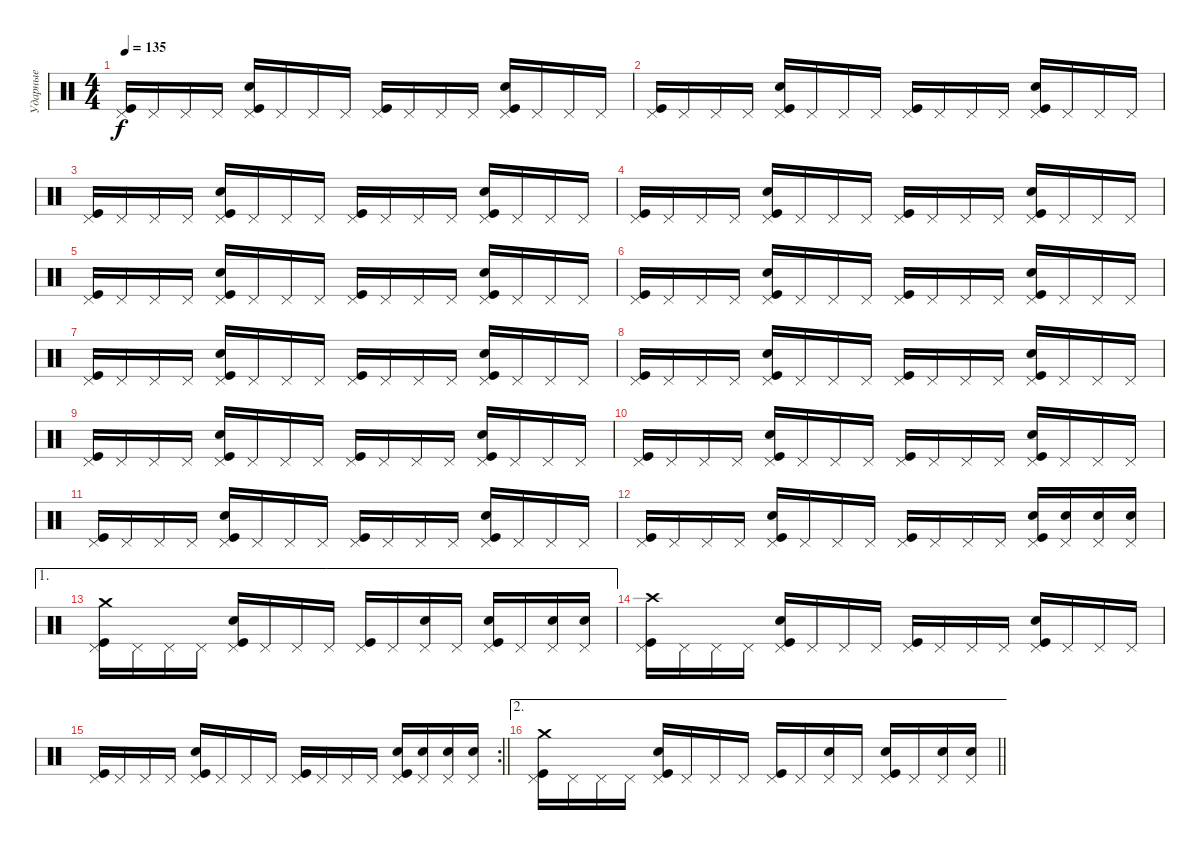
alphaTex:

\track ("Ударные" "Ударные") {instrument percussion}
\staff {score}
\articulation defaults
\ts (4 4)
\tempo 135
\clef neutral
\ks c
("Kick (hit)" "Pedal Hi-Hat (hit)").16{dy f} "Pedal Hi-Hat (hit)".16 "Pedal Hi-Hat (hit)".16 "Pedal Hi-Hat (hit)".16 ("Kick (hit)" "Pedal Hi-Hat (hit)" "Snare (hit) 2").16 "Pedal Hi-Hat (hit)".16 "Pedal Hi-Hat (hit)".16 "Pedal Hi-Hat (hit)".16 ("Kick (hit)" "Pedal Hi-Hat (hit)").16 "Pedal Hi-Hat (hit)".16 "Pedal Hi-Hat (hit)".16 "Pedal Hi-Hat (hit)".16 ("Kick (hit)" "Pedal Hi-Hat (hit)" "Snare (hit) 2").16 "Pedal Hi-Hat (hit)".16 "Pedal Hi-Hat (hit)".16 "Pedal Hi-Hat (hit)".16 |
("Kick (hit)" "Pedal Hi-Hat (hit)").16 "Pedal Hi-Hat (hit)".16 "Pedal Hi-Hat (hit)".16 "Pedal Hi-Hat (hit)".16 ("Kick (hit)" "Pedal Hi-Hat (hit)" "Snare (hit) 2").16 "Pedal Hi-Hat (hit)".16 "Pedal Hi-Hat (hit)".16 "Pedal Hi-Hat (hit)".16 ("Kick (hit)" "Pedal Hi-Hat (hit)").16 "Pedal Hi-Hat (hit)".16 "Pedal Hi-Hat (hit)".16 "Pedal Hi-Hat (hit)".16 ("Kick (hit)" "Pedal Hi-Hat (hit)" "Snare (hit) 2").16 "Pedal Hi-Hat (hit)".16 "Pedal Hi-Hat (hit)".16 "Pedal Hi-Hat (hit)".16 |
("Kick (hit)" "Pedal Hi-Hat (hit)").16 "Pedal Hi-Hat (hit)".16 "Pedal Hi-Hat (hit)".16 "Pedal Hi-Hat (hit)".16 ("Kick (hit)" "Pedal Hi-Hat (hit)" "Snare (hit) 2").16 "Pedal Hi-Hat (hit)".16 "Pedal Hi-Hat (hit)".16 "Pedal Hi-Hat (hit)".16 ("Kick (hit)" "Pedal Hi-Hat (hit)").16 "Pedal Hi-Hat (hit)".16 "Pedal Hi-Hat (hit)".16 "Pedal Hi-Hat (hit)".16 ("Kick (hit)" "Pedal Hi-Hat (hit)" "Snare (hit) 2").16 "Pedal Hi-Hat (hit)".16 "Pedal Hi-Hat (hit)".16 "Pedal Hi-Hat (hit)".16 |
("Kick (hit)" "Pedal Hi-Hat (hit)").16 "Pedal Hi-Hat (hit)".16 "Pedal Hi-Hat (hit)".16 "Pedal Hi-Hat (hit)".16 ("Kick (hit)" "Pedal Hi-Hat (hit)" "Snare (hit) 2").16 "Pedal Hi-Hat (hit)".16 "Pedal Hi-Hat (hit)".16 "Pedal Hi-Hat (hit)".16 ("Kick (hit)" "Pedal Hi-Hat (hit)").16 "Pedal Hi-Hat (hit)".16 "Pedal Hi-Hat (hit)".16 "Pedal Hi-Hat (hit)".16 ("Kick (hit)" "Pedal Hi-Hat (hit)" "Snare (hit) 2").16 "Pedal Hi-Hat (hit)".16 "Pedal Hi-Hat (hit)".16 "Pedal Hi-Hat (hit)".16 |
("Kick (hit)" "Pedal Hi-Hat (hit)").16 "Pedal Hi-Hat (hit)".16 "Pedal Hi-Hat (hit)".16 "Pedal Hi-Hat (hit)".16 ("Kick (hit)" "Pedal Hi-Hat (hit)" "Snare (hit) 2").16 "Pedal Hi-Hat (hit)".16 "Pedal Hi-Hat (hit)".16 "Pedal Hi-Hat (hit)".16 ("Kick (hit)" "Pedal Hi-Hat (hit)").16 "Pedal Hi-Hat (hit)".16 "Pedal Hi-Hat (hit)".16 "Pedal Hi-Hat (hit)".16 ("Kick (hit)" "Pedal Hi-Hat (hit)" "Snare (hit) 2").16 "Pedal Hi-Hat (hit)".16 "Pedal Hi-Hat (hit)".16 "Pedal Hi-Hat (hit)".16 |
("Kick (hit)" "Pedal Hi-Hat (hit)").16 "Pedal Hi-Hat (hit)".16 "Pedal Hi-Hat (hit)".16 "Pedal Hi-Hat (hit)".16 ("Kick (hit)" "Pedal Hi-Hat (hit)" "Snare (hit) 2").16 "Pedal Hi-Hat (hit)".16 "Pedal Hi-Hat (hit)".16 "Pedal Hi-Hat (hit)".16 ("Kick (hit)" "Pedal Hi-Hat (hit)").16 "Pedal Hi-Hat (hit)".16 "Pedal Hi-Hat (hit)".16 "Pedal Hi-Hat (hit)".16 ("Kick (hit)" "Pedal Hi-Hat (hit)" "Snare (hit) 2").16 "Pedal Hi-Hat (hit)".16 "Pedal Hi-Hat (hit)".16 "Pedal Hi-Hat (hit)".16 |
("Kick (hit)" "Pedal Hi-Hat (hit)").16 "Pedal Hi-Hat (hit)".16 "Pedal Hi-Hat (hit)".16 "Pedal Hi-Hat (hit)".16 ("Kick (hit)" "Pedal Hi-Hat (hit)" "Snare (hit) 2").16 "Pedal Hi-Hat (hit)".16 "Pedal Hi-Hat (hit)".16 "Pedal Hi-Hat (hit)".16 ("Kick (hit)" "Pedal Hi-Hat (hit)").16 "Pedal Hi-Hat (hit)".16 "Pedal Hi-Hat (hit)".16 "Pedal Hi-Hat (hit)".16 ("Kick (hit)" "Pedal Hi-Hat (hit)" "Snare (hit) 2").16 "Pedal Hi-Hat (hit)".16 "Pedal Hi-Hat (hit)".16 "Pedal Hi-Hat (hit)".16 |
("Kick (hit)" "Pedal Hi-Hat (hit)").16 "Pedal Hi-Hat (hit)".16 "Pedal Hi-Hat (hit)".16 "Pedal Hi-Hat (hit)".16 ("Kick (hit)" "Pedal Hi-Hat (hit)" "Snare (hit) 2").16 "Pedal Hi-Hat (hit)".16 "Pedal Hi-Hat (hit)".16 "Pedal Hi-Hat (hit)".16 ("Kick (hit)" "Pedal Hi-Hat (hit)").16 "Pedal Hi-Hat (hit)".16 "Pedal Hi-Hat (hit)".16 "Pedal Hi-Hat (hit)".16 ("Kick (hit)" "Pedal Hi-Hat (hit)" "Snare (hit) 2").16 "Pedal Hi-Hat (hit)".16 "Pedal Hi-Hat (hit)".16 "Pedal Hi-Hat (hit)".16 |
("Kick (hit)" "Pedal Hi-Hat (hit)").16 "Pedal Hi-Hat (hit)".16 "Pedal Hi-Hat (hit)".16 "Pedal Hi-Hat (hit)".16 ("Kick (hit)" "Pedal Hi-Hat (hit)" "Snare (hit) 2").16 "Pedal Hi-Hat (hit)".16 "Pedal Hi-Hat (hit)".16 "Pedal Hi-Hat (hit)".16 ("Kick (hit)" "Pedal Hi-Hat (hit)").16 "Pedal Hi-Hat (hit)".16 "Pedal Hi-Hat (hit)".16 "Pedal Hi-Hat (hit)".16 ("Kick (hit)" "Pedal Hi-Hat (hit)" "Snare (hit) 2").16 "Pedal Hi-Hat (hit)".16 "Pedal Hi-Hat (hit)".16 "Pedal Hi-Hat (hit)".16 |
("Kick (hit)" "Pedal Hi-Hat (hit)").16 "Pedal Hi-Hat (hit)".16 "Pedal Hi-Hat (hit)".16 "Pedal Hi-Hat (hit)".16 ("Kick (hit)" "Pedal Hi-Hat (hit)" "Snare (hit) 2").16 "Pedal Hi-Hat (hit)".16 "Pedal Hi-Hat (hit)".16 "Pedal Hi-Hat (hit)".16 ("Kick (hit)" "Pedal Hi-Hat (hit)").16 "Pedal Hi-Hat (hit)".16 "Pedal Hi-Hat (hit)".16 "Pedal Hi-Hat (hit)".16 ("Kick (hit)" "Pedal Hi-Hat (hit)" "Snare (hit) 2").16 "Pedal Hi-Hat (hit)".16 "Pedal Hi-Hat (hit)".16 "Pedal Hi-Hat (hit)".16 |
("Kick (hit)" "Pedal Hi-Hat (hit)").16 "Pedal Hi-Hat (hit)".16 "Pedal Hi-Hat (hit)".16 "Pedal Hi-Hat (hit)".16 ("Kick (hit)" "Pedal Hi-Hat (hit)" "Snare (hit) 2").16 "Pedal Hi-Hat (hit)".16 "Pedal Hi-Hat (hit)".16 "Pedal Hi-Hat (hit)".16 ("Kick (hit)" "Pedal Hi-Hat (hit)").16 "Pedal Hi-Hat (hit)".16 "Pedal Hi-Hat (hit)".16 "Pedal Hi-Hat (hit)".16 ("Kick (hit)" "Pedal Hi-Hat (hit)" "Snare (hit) 2").16 "Pedal Hi-Hat (hit)".16 "Pedal Hi-Hat (hit)".16 "Pedal Hi-Hat (hit)".16 |
("Kick (hit)" "Pedal Hi-Hat (hit)").16 "Pedal Hi-Hat (hit)".16 "Pedal Hi-Hat (hit)".16 "Pedal Hi-Hat (hit)".16 ("Kick (hit)" "Pedal Hi-Hat (hit)" "Snare (hit) 2").16 "Pedal Hi-Hat (hit)".16 "Pedal Hi-Hat (hit)".16 "Pedal Hi-Hat (hit)".16 ("Kick (hit)" "Pedal Hi-Hat (hit)").16 "Pedal Hi-Hat (hit)".16 "Pedal Hi-Hat (hit)".16 "Pedal Hi-Hat (hit)".16 ("Kick (hit)" "Pedal Hi-Hat (hit)" "Snare (hit) 2").16 ("Pedal Hi-Hat (hit)" "Snare (hit) 2").16 ("Pedal Hi-Hat (hit)" "Snare (hit) 2").16 ("Pedal Hi-Hat (hit)" "Snare (hit) 2").16 |
\ae 1
("Kick (hit)" "Pedal Hi-Hat (hit)" "Crash medium (hit)").16 "Pedal Hi-Hat (hit)".16 "Pedal Hi-Hat (hit)".16 "Pedal Hi-Hat (hit)".16 ("Kick (hit)" "Pedal Hi-Hat (hit)" "Snare (hit) 2").16 "Pedal Hi-Hat (hit)".16 "Pedal Hi-Hat (hit)".16 "Pedal Hi-Hat (hit)".16 ("Kick (hit)" "Pedal Hi-Hat (hit)").16 "Pedal Hi-Hat (hit)".16 ("Pedal Hi-Hat (hit)" "Snare (hit) 2").16 "Pedal Hi-Hat (hit)".16 ("Kick (hit)" "Pedal Hi-Hat (hit)" "Snare (hit) 2").16 "Pedal Hi-Hat (hit)".16 ("Pedal Hi-Hat (hit)" "Snare (hit) 2").16 ("Pedal Hi-Hat (hit)" "Snare (hit) 2").16 |
("Kick (hit)" "Pedal Hi-Hat (hit)" "Crash high (hit)").16 "Pedal Hi-Hat (hit)".16 "Pedal Hi-Hat (hit)".16 "Pedal Hi-Hat (hit)".16 ("Kick (hit)" "Pedal Hi-Hat (hit)" "Snare (hit) 2").16 "Pedal Hi-Hat (hit)".16 "Pedal Hi-Hat (hit)".16 "Pedal Hi-Hat (hit)".16 ("Kick (hit)" "Pedal Hi-Hat (hit)").16 "Pedal Hi-Hat (hit)".16 "Pedal Hi-Hat (hit)".16 "Pedal Hi-Hat (hit)".16 ("Kick (hit)" "Pedal Hi-Hat (hit)" "Snare (hit) 2").16 "Pedal Hi-Hat (hit)".16 "Pedal Hi-Hat (hit)".16 "Pedal Hi-Hat (hit)".16 |
\rc 2
\barLineRight lightlight
("Kick (hit)" "Pedal Hi-Hat (hit)").16 "Pedal Hi-Hat (hit)".16 "Pedal Hi-Hat (hit)".16 "Pedal Hi-Hat (hit)".16 ("Kick (hit)" "Pedal Hi-Hat (hit)" "Snare (hit) 2").16 "Pedal Hi-Hat (hit)".16 "Pedal Hi-Hat (hit)".16 "Pedal Hi-Hat (hit)".16 ("Kick (hit)" "Pedal Hi-Hat (hit)").16 "Pedal Hi-Hat (hit)".16 "Pedal Hi-Hat (hit)".16 "Pedal Hi-Hat (hit)".16 ("Kick (hit)" "Pedal Hi-Hat (hit)" "Snare (hit) 2").16 ("Pedal Hi-Hat (hit)" "Snare (hit) 2").16 ("Pedal Hi-Hat (hit)" "Snare (hit) 2").16 ("Pedal Hi-Hat (hit)" "Snare (hit) 2").16 |
\ae 2
\barLineRight lightlight
("Kick (hit)" "Pedal Hi-Hat (hit)" "Crash medium (hit)").16 "Pedal Hi-Hat (hit)".16 "Pedal Hi-Hat (hit)".16 "Pedal Hi-Hat (hit)".16 ("Kick (hit)" "Pedal Hi-Hat (hit)" "Snare (hit) 2").16 "Pedal Hi-Hat (hit)".16 "Pedal Hi-Hat (hit)".16 "Pedal Hi-Hat (hit)".16 ("Kick (hit)" "Pedal Hi-Hat (hit)").16 "Pedal Hi-Hat (hit)".16 ("Pedal Hi-Hat (hit)" "Snare (hit) 2").16 "Pedal Hi-Hat (hit)".16 ("Kick (hit)" "Pedal Hi-Hat (hit)" "Snare (hit) 2").16 "Pedal Hi-Hat (hit)".16 ("Pedal Hi-Hat (hit)" "Snare (hit) 2").16 ("Pedal Hi-Hat (hit)" "Snare (hit) 2").16
